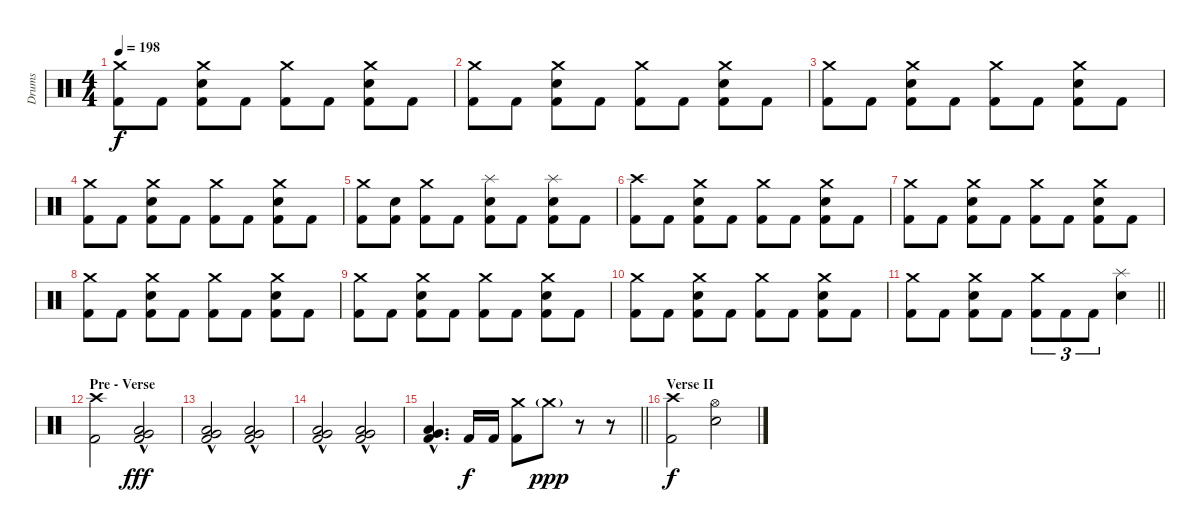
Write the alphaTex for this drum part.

\track ("Drums" "Drums") {instrument percussion}
\staff {score}
\articulation defaults
\ts (4 4)
\tempo 198
\clef neutral
\ks c
("Crash medium (hit)" "Kick (hit) 2").8{dy f} "Kick (hit) 2".8 ("Crash medium (hit)" "Electric Snare (hit)" "Kick (hit) 2").8 "Kick (hit) 2".8 ("Crash medium (hit)" "Kick (hit) 2").8 "Kick (hit) 2".8 ("Crash medium (hit)" "Electric Snare (hit)" "Kick (hit) 2").8 "Kick (hit) 2".8 |
("Crash medium (hit)" "Kick (hit) 2").8 "Kick (hit) 2".8 ("Crash medium (hit)" "Electric Snare (hit)" "Kick (hit) 2").8 "Kick (hit) 2".8 ("Crash medium (hit)" "Kick (hit) 2").8 "Kick (hit) 2".8 ("Crash medium (hit)" "Electric Snare (hit)" "Kick (hit) 2").8 "Kick (hit) 2".8 |
("Crash medium (hit)" "Kick (hit) 2").8 "Kick (hit) 2".8 ("Crash medium (hit)" "Electric Snare (hit)" "Kick (hit) 2").8 "Kick (hit) 2".8 ("Crash medium (hit)" "Kick (hit) 2").8 "Kick (hit) 2".8 ("Crash medium (hit)" "Electric Snare (hit)" "Kick (hit) 2").8 "Kick (hit) 2".8 |
("Crash medium (hit)" "Kick (hit) 2").8 "Kick (hit) 2".8 ("Crash medium (hit)" "Electric Snare (hit)" "Kick (hit) 2").8 "Kick (hit) 2".8 ("Crash medium (hit)" "Kick (hit) 2").8 "Kick (hit) 2".8 ("Crash medium (hit)" "Electric Snare (hit)" "Kick (hit) 2").8 "Kick (hit) 2".8 |
("Crash medium (hit)" "Kick (hit) 2").8 ("Electric Snare (hit)" "Kick (hit) 2").8 ("Crash medium (hit)" "Kick (hit) 2").8 "Kick (hit) 2".8 ("Splash (hit)" "Electric Snare (hit)" "Kick (hit) 2").8 "Kick (hit) 2".8 ("Splash (hit)" "Electric Snare (hit)" "Kick (hit) 2").8 "Kick (hit) 2".8 |
("Crash high (hit)" "Kick (hit) 2").8 "Kick (hit) 2".8 ("Crash medium (hit)" "Electric Snare (hit)" "Kick (hit) 2").8 "Kick (hit) 2".8 ("Crash medium (hit)" "Kick (hit) 2").8 "Kick (hit) 2".8 ("Crash medium (hit)" "Electric Snare (hit)" "Kick (hit) 2").8 "Kick (hit) 2".8 |
("Crash medium (hit)" "Kick (hit) 2").8 "Kick (hit) 2".8 ("Crash medium (hit)" "Electric Snare (hit)" "Kick (hit) 2").8 "Kick (hit) 2".8 ("Crash medium (hit)" "Kick (hit) 2").8 "Kick (hit) 2".8 ("Crash medium (hit)" "Electric Snare (hit)" "Kick (hit) 2").8 "Kick (hit) 2".8 |
("Crash medium (hit)" "Kick (hit) 2").8 "Kick (hit) 2".8 ("Crash medium (hit)" "Electric Snare (hit)" "Kick (hit) 2").8 "Kick (hit) 2".8 ("Crash medium (hit)" "Kick (hit) 2").8 "Kick (hit) 2".8 ("Crash medium (hit)" "Electric Snare (hit)" "Kick (hit) 2").8 "Kick (hit) 2".8 |
("Crash medium (hit)" "Kick (hit) 2").8 "Kick (hit) 2".8 ("Crash medium (hit)" "Electric Snare (hit)" "Kick (hit) 2").8 "Kick (hit) 2".8 ("Crash medium (hit)" "Kick (hit) 2").8 "Kick (hit) 2".8 ("Crash medium (hit)" "Electric Snare (hit)" "Kick (hit) 2").8 "Kick (hit) 2".8 |
("Crash medium (hit)" "Kick (hit) 2").8 "Kick (hit) 2".8 ("Crash medium (hit)" "Electric Snare (hit)" "Kick (hit) 2").8 "Kick (hit) 2".8 ("Crash medium (hit)" "Kick (hit) 2").8 "Kick (hit) 2".8 ("Crash medium (hit)" "Electric Snare (hit)" "Kick (hit) 2").8 "Kick (hit) 2".8 |
\barLineRight lightlight
("Crash medium (hit)" "Kick (hit) 2").8 "Kick (hit) 2".8 ("Crash medium (hit)" "Electric Snare (hit)" "Kick (hit) 2").8 "Kick (hit) 2".8 ("Crash medium (hit)" "Kick (hit) 2").8{tu (3 2)} "Kick (hit) 2".8{tu (3 2)} "Kick (hit) 2".8{tu (3 2)} ("Splash (hit)" "Electric Snare (hit)").4 |
\section ("" "Pre - Verse")
("Crash high (hit)" "Kick (hit) 2").2 ("Very Low Tom (hit)"{hac} "Low Floor Tom (hit)"{hac} "Kick (hit) 2"{hac}).2{dy fff} |
("Very Low Tom (hit)"{hac} "Low Floor Tom (hit)"{hac} "Kick (hit) 2"{hac}).2 ("Very Low Tom (hit)"{hac} "Low Floor Tom (hit)"{hac} "Kick (hit) 2"{hac}).2 |
("Very Low Tom (hit)"{hac} "Low Floor Tom (hit)"{hac} "Kick (hit) 2"{hac}).2 ("Very Low Tom (hit)"{hac} "Low Floor Tom (hit)"{hac} "Kick (hit) 2"{hac}).2 |
\barLineRight lightlight
("Very Low Tom (hit)"{hac} "Low Floor Tom (hit)"{hac} "Kick (hit) 2"{hac}).4{d} "Kick (hit) 2".16{dy f} "Kick (hit) 2".16 ("Crash medium (hit)" "Kick (hit) 2").8 "Crash medium (hit)"{g}.8{dy ppp} r.8 r.8 |
\section ("" "Verse II")
("Crash high (hit)" "Kick (hit) 2").2{dy f} ("Hi-Hat (open)" "Electric Snare (hit)").2
